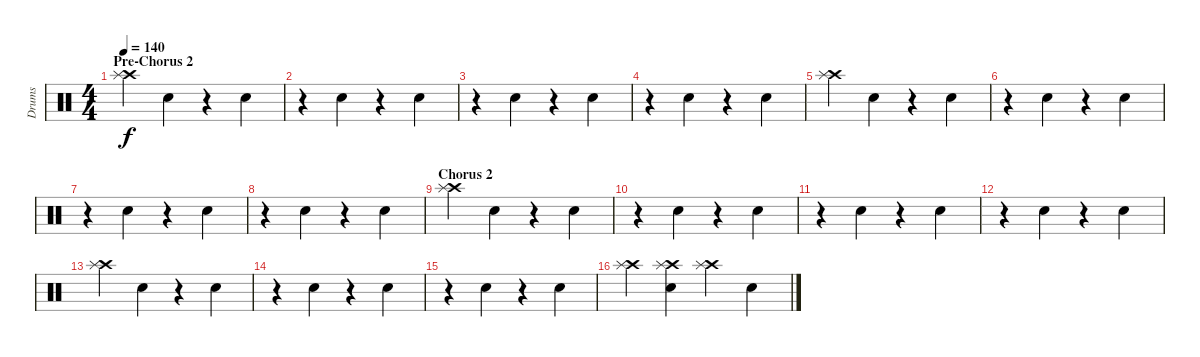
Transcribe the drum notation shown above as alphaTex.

\track ("Drums" "Drums") {instrument percussion}
\staff {score}
\articulation defaults
\ts (4 4)
\section ("" "Pre-Chorus 2")
\tempo 140
\clef neutral
\ks c
("Crash high (hit)" "Splash (hit)").4{dy f} "Snare (hit) 2".4 r.4 "Snare (hit) 2".4 |
r.4 "Snare (hit) 2".4 r.4 "Snare (hit) 2".4 |
r.4 "Snare (hit) 2".4 r.4 "Snare (hit) 2".4 |
r.4 "Snare (hit) 2".4 r.4 "Snare (hit) 2".4 |
("Crash high (hit)" "Splash (hit)").4 "Snare (hit) 2".4 r.4 "Snare (hit) 2".4 |
r.4 "Snare (hit) 2".4 r.4 "Snare (hit) 2".4 |
r.4 "Snare (hit) 2".4 r.4 "Snare (hit) 2".4 |
r.4 "Snare (hit) 2".4 r.4 "Snare (hit) 2".4 |
\section ("" "Chorus 2")
("Crash high (hit)" "Splash (hit)").4 "Snare (hit) 2".4 r.4 "Snare (hit) 2".4 |
r.4 "Snare (hit) 2".4 r.4 "Snare (hit) 2".4 |
r.4 "Snare (hit) 2".4 r.4 "Snare (hit) 2".4 |
r.4 "Snare (hit) 2".4 r.4 "Snare (hit) 2".4 |
("Crash high (hit)" "Splash (hit)").4 "Snare (hit) 2".4 r.4 "Snare (hit) 2".4 |
r.4 "Snare (hit) 2".4 r.4 "Snare (hit) 2".4 |
r.4 "Snare (hit) 2".4 r.4 "Snare (hit) 2".4 |
("Crash high (hit)" "Splash (hit)").4 ("Snare (hit) 2" "Crash high (hit)" "Splash (hit)").4 ("Crash high (hit)" "Splash (hit)").4 "Snare (hit) 2".4
